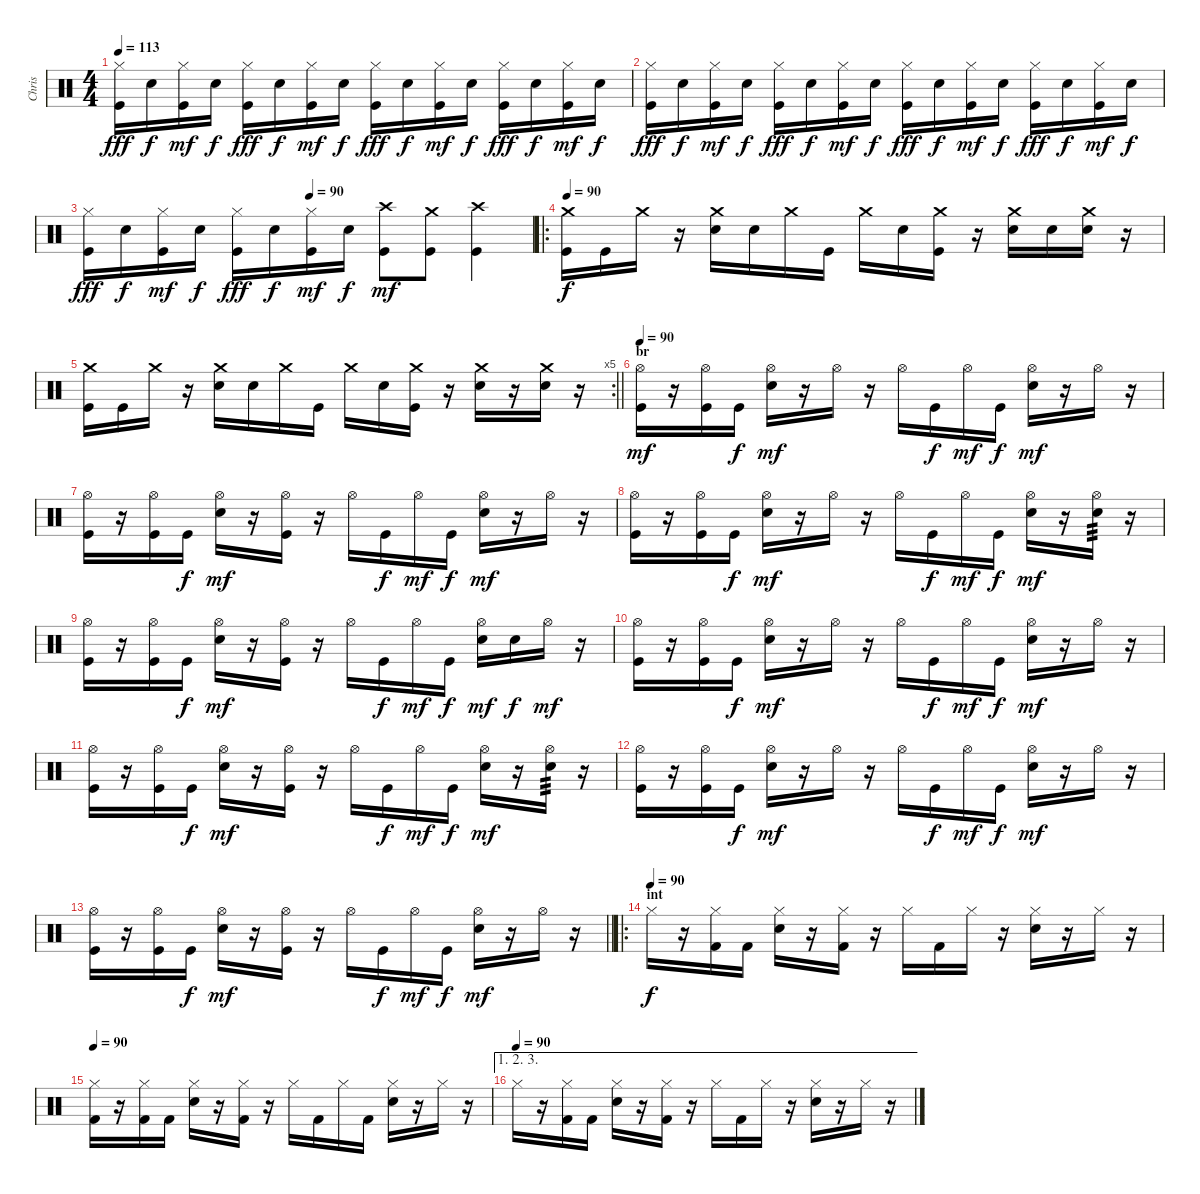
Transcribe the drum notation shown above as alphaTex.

\track ("Chris" "Chris") {instrument percussion}
\staff {score}
\articulation defaults
\ts (4 4)
\tempo 113
\clef neutral
\ks c
("Hi-Hat (closed)" "Kick (hit)").16{dy fff} "Electric Snare (hit)".16{dy f} ("Hi-Hat (closed)" "Kick (hit)").16{dy mf} "Electric Snare (hit)".16{dy f} ("Hi-Hat (closed)" "Kick (hit)").16{dy fff} "Electric Snare (hit)".16{dy f} ("Hi-Hat (closed)" "Kick (hit)").16{dy mf} "Electric Snare (hit)".16{dy f} ("Hi-Hat (closed)" "Kick (hit)").16{dy fff} "Electric Snare (hit)".16{dy f} ("Hi-Hat (closed)" "Kick (hit)").16{dy mf} "Electric Snare (hit)".16{dy f} ("Hi-Hat (closed)" "Kick (hit)").16{dy fff} "Electric Snare (hit)".16{dy f} ("Hi-Hat (closed)" "Kick (hit)").16{dy mf} "Electric Snare (hit)".16{dy f} |
("Hi-Hat (closed)" "Kick (hit)").16{dy fff} "Electric Snare (hit)".16{dy f} ("Hi-Hat (closed)" "Kick (hit)").16{dy mf} "Electric Snare (hit)".16{dy f} ("Hi-Hat (closed)" "Kick (hit)").16{dy fff} "Electric Snare (hit)".16{dy f} ("Hi-Hat (closed)" "Kick (hit)").16{dy mf} "Electric Snare (hit)".16{dy f} ("Hi-Hat (closed)" "Kick (hit)").16{dy fff} "Electric Snare (hit)".16{dy f} ("Hi-Hat (closed)" "Kick (hit)").16{dy mf} "Electric Snare (hit)".16{dy f} ("Hi-Hat (closed)" "Kick (hit)").16{dy fff} "Electric Snare (hit)".16{dy f} ("Hi-Hat (closed)" "Kick (hit)").16{dy mf} "Electric Snare (hit)".16{dy f} |
\tempo (90 0.5)
("Hi-Hat (closed)" "Kick (hit)").16{dy fff} "Electric Snare (hit)".16{dy f} ("Hi-Hat (closed)" "Kick (hit)").16{dy mf} "Electric Snare (hit)".16{dy f} ("Hi-Hat (closed)" "Kick (hit)").16{dy fff} "Electric Snare (hit)".16{dy f} ("Hi-Hat (closed)" "Kick (hit)").16{dy mf} "Electric Snare (hit)".16{dy f} ("Crash high (hit)" "Kick (hit)").8{dy mf} ("Crash medium (hit)" "Kick (hit)").8 ("Crash high (hit)" "Kick (hit)").4 |
\ro
\tempo 90
("Crash medium (hit)" "Kick (hit)").16{dy f} "Kick (hit)".16 "Crash medium (hit)".16 r.16 ("Crash medium (hit)" "Electric Snare (hit)").16 "Electric Snare (hit)".16 "Crash medium (hit)".16 "Kick (hit)".16 "Crash medium (hit)".16 "Electric Snare (hit)".16 ("Crash medium (hit)" "Kick (hit)").16 r.16 ("Crash medium (hit)" "Electric Snare (hit)").16 "Electric Snare (hit)".16 ("Crash medium (hit)" "Electric Snare (hit)").16 r.16 |
\rc 5
\barLineRight lightlight
("Crash medium (hit)" "Kick (hit)").16 "Kick (hit)".16 "Crash medium (hit)".16 r.16 ("Crash medium (hit)" "Electric Snare (hit)").16 "Electric Snare (hit)".16 "Crash medium (hit)".16 "Kick (hit)".16 "Crash medium (hit)".16 "Electric Snare (hit)".16 ("Crash medium (hit)" "Kick (hit)").16 r.16 ("Crash medium (hit)" "Electric Snare (hit)").16 r.16 ("Crash medium (hit)" "Electric Snare (hit)").16 r.16 |
\section ("" "br")
\tempo 90
("Hi-Hat (open)" "Kick (hit)").16{dy mf} r.16 ("Hi-Hat (open)" "Kick (hit)").16 "Kick (hit)".16{dy f} ("Hi-Hat (open)" "Electric Snare (hit)").16{dy mf} r.16 "Hi-Hat (open)".16 r.16 "Hi-Hat (open)".16 "Kick (hit)".16{dy f} "Hi-Hat (open)".16{dy mf} "Kick (hit)".16{dy f} ("Hi-Hat (open)" "Electric Snare (hit)").16{dy mf} r.16 "Hi-Hat (open)".16 r.16 |
("Hi-Hat (open)" "Kick (hit)").16 r.16 ("Hi-Hat (open)" "Kick (hit)").16 "Kick (hit)".16{dy f} ("Hi-Hat (open)" "Electric Snare (hit)").16{dy mf} r.16 ("Hi-Hat (open)" "Kick (hit)").16 r.16 "Hi-Hat (open)".16 "Kick (hit)".16{dy f} "Hi-Hat (open)".16{dy mf} "Kick (hit)".16{dy f} ("Hi-Hat (open)" "Electric Snare (hit)").16{dy mf} r.16 "Hi-Hat (open)".16 r.16 |
("Hi-Hat (open)" "Kick (hit)").16 r.16 ("Hi-Hat (open)" "Kick (hit)").16 "Kick (hit)".16{dy f} ("Hi-Hat (open)" "Electric Snare (hit)").16{dy mf} r.16 "Hi-Hat (open)".16 r.16 "Hi-Hat (open)".16 "Kick (hit)".16{dy f} "Hi-Hat (open)".16{dy mf} "Kick (hit)".16{dy f} ("Hi-Hat (open)" "Electric Snare (hit)").16{dy mf} r.16 ("Hi-Hat (open)" "Electric Snare (hit)").16{tp 3} r.16 |
("Hi-Hat (open)" "Kick (hit)").16 r.16 ("Hi-Hat (open)" "Kick (hit)").16 "Kick (hit)".16{dy f} ("Hi-Hat (open)" "Electric Snare (hit)").16{dy mf} r.16 ("Hi-Hat (open)" "Kick (hit)").16 r.16 "Hi-Hat (open)".16 "Kick (hit)".16{dy f} "Hi-Hat (open)".16{dy mf} "Kick (hit)".16{dy f} ("Hi-Hat (open)" "Electric Snare (hit)").16{dy mf} "Electric Snare (hit)".16{dy f} "Hi-Hat (open)".16{dy mf} r.16 |
("Hi-Hat (open)" "Kick (hit)").16 r.16 ("Hi-Hat (open)" "Kick (hit)").16 "Kick (hit)".16{dy f} ("Hi-Hat (open)" "Electric Snare (hit)").16{dy mf} r.16 "Hi-Hat (open)".16 r.16 "Hi-Hat (open)".16 "Kick (hit)".16{dy f} "Hi-Hat (open)".16{dy mf} "Kick (hit)".16{dy f} ("Hi-Hat (open)" "Electric Snare (hit)").16{dy mf} r.16 "Hi-Hat (open)".16 r.16 |
("Hi-Hat (open)" "Kick (hit)").16 r.16 ("Hi-Hat (open)" "Kick (hit)").16 "Kick (hit)".16{dy f} ("Hi-Hat (open)" "Electric Snare (hit)").16{dy mf} r.16 ("Hi-Hat (open)" "Kick (hit)").16 r.16 "Hi-Hat (open)".16 "Kick (hit)".16{dy f} "Hi-Hat (open)".16{dy mf} "Kick (hit)".16{dy f} ("Hi-Hat (open)" "Electric Snare (hit)").16{dy mf} r.16 ("Hi-Hat (open)" "Electric Snare (hit)").16{tp 3} r.16 |
("Hi-Hat (open)" "Kick (hit)").16 r.16 ("Hi-Hat (open)" "Kick (hit)").16 "Kick (hit)".16{dy f} ("Hi-Hat (open)" "Electric Snare (hit)").16{dy mf} r.16 "Hi-Hat (open)".16 r.16 "Hi-Hat (open)".16 "Kick (hit)".16{dy f} "Hi-Hat (open)".16{dy mf} "Kick (hit)".16{dy f} ("Hi-Hat (open)" "Electric Snare (hit)").16{dy mf} r.16 "Hi-Hat (open)".16 r.16 |
\barLineRight lightlight
("Hi-Hat (open)" "Kick (hit)").16 r.16 ("Hi-Hat (open)" "Kick (hit)").16 "Kick (hit)".16{dy f} ("Hi-Hat (open)" "Electric Snare (hit)").16{dy mf} r.16 ("Hi-Hat (open)" "Kick (hit)").16 r.16 "Hi-Hat (open)".16 "Kick (hit)".16{dy f} "Hi-Hat (open)".16{dy mf} "Kick (hit)".16{dy f} ("Hi-Hat (open)" "Electric Snare (hit)").16{dy mf} r.16 "Hi-Hat (open)".16 r.16 |
\ro
\section ("" "int")
\tempo (90)
"Hi-Hat (closed)".16{dy f} r.16 ("Hi-Hat (closed)" "Kick (hit) 2").16 "Kick (hit) 2".16 ("Hi-Hat (closed)" "Electric Snare (hit)").16 r.16 ("Hi-Hat (closed)" "Kick (hit) 2").16 r.16 "Hi-Hat (closed)".16 "Kick (hit) 2".16 "Hi-Hat (closed)".16 r.16 ("Hi-Hat (closed)" "Electric Snare (hit)").16 r.16 "Hi-Hat (closed)".16 r.16 |
\tempo 90
("Hi-Hat (closed)" "Kick (hit) 2").16 r.16 ("Hi-Hat (closed)" "Kick (hit) 2").16 "Kick (hit) 2".16 ("Hi-Hat (closed)" "Electric Snare (hit)").16 r.16 ("Hi-Hat (closed)" "Kick (hit) 2").16 r.16 "Hi-Hat (closed)".16 "Kick (hit) 2".16 "Hi-Hat (closed)".16 "Kick (hit) 2".16 ("Hi-Hat (closed)" "Electric Snare (hit)").16 r.16 "Hi-Hat (closed)".16 r.16 |
\ae (1 2 3)
\tempo (90)
"Hi-Hat (closed)".16 r.16 ("Hi-Hat (closed)" "Kick (hit) 2").16 "Kick (hit) 2".16 ("Hi-Hat (closed)" "Electric Snare (hit)").16 r.16 ("Hi-Hat (closed)" "Kick (hit) 2").16 r.16 "Hi-Hat (closed)".16 "Kick (hit) 2".16 "Hi-Hat (closed)".16 r.16 ("Hi-Hat (closed)" "Electric Snare (hit)").16 r.16 "Hi-Hat (closed)".16 r.16
